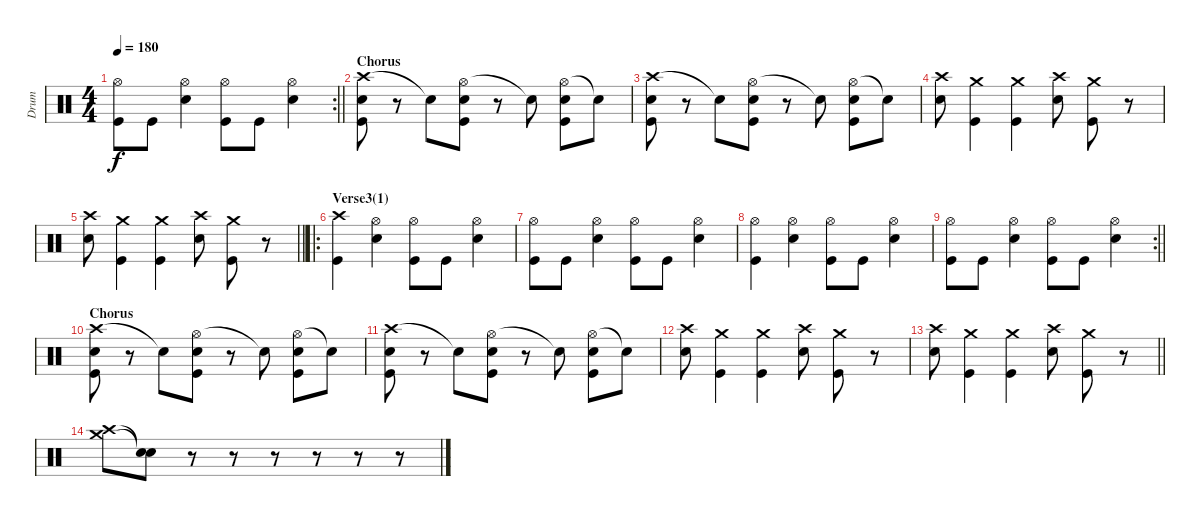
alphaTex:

\track ("Drum" "Drum") {instrument percussion}
\staff {score}
\articulation defaults
\rc 2
\ts (4 4)
\tempo 180
\clef neutral
\barLineRight lightlight
\ks c
("Hi-Hat (open)" "Kick (hit)").8{dy f} "Kick (hit)".8 ("Hi-Hat (open)" "Snare (hit) 2").4 ("Hi-Hat (open)" "Kick (hit)").8 "Kick (hit)".8 ("Hi-Hat (open)" "Snare (hit) 2").4 |
\section ("" "Chorus")
("Crash high (hit)" "Snare (hit) 2" "Kick (hit)").8 r.8 "Snare (hit)"{t}.8 ("Hi-Hat (open)" "Snare (hit) 2" "Kick (hit)").8 r.8 "Snare (hit)"{t}.8 ("Hi-Hat (open)" "Snare (hit) 2" "Kick (hit)").8 "Snare (hit)"{t}.8 |
("Crash high (hit)" "Snare (hit) 2" "Kick (hit)").8 r.8 "Snare (hit)"{t}.8 ("Hi-Hat (open)" "Snare (hit) 2" "Kick (hit)").8 r.8 "Snare (hit)"{t}.8 ("Hi-Hat (open)" "Snare (hit) 2" "Kick (hit)").8 "Snare (hit)"{t}.8 |
("Crash high (hit)" "Snare (hit) 2").8 ("Crash medium (hit)" "Kick (hit)").4 ("Crash medium (hit)" "Kick (hit)").4 ("Crash high (hit)" "Snare (hit) 2").8 ("Crash medium (hit)" "Kick (hit)").8 r.8 |
\barLineRight lightlight
("Crash high (hit)" "Snare (hit) 2").8 ("Crash medium (hit)" "Kick (hit)").4 ("Crash medium (hit)" "Kick (hit)").4 ("Crash high (hit)" "Snare (hit) 2").8 ("Crash medium (hit)" "Kick (hit)").8 r.8 |
\ro
\section ("" "Verse3(1)")
("Crash high (hit)" "Kick (hit)").4 ("Hi-Hat (open)" "Snare (hit) 2").4 ("Hi-Hat (open)" "Kick (hit)").8 "Kick (hit)".8 ("Hi-Hat (open)" "Snare (hit) 2").4 |
("Hi-Hat (open)" "Kick (hit)").8 "Kick (hit)".8 ("Hi-Hat (open)" "Snare (hit) 2").4 ("Hi-Hat (open)" "Kick (hit)").8 "Kick (hit)".8 ("Hi-Hat (open)" "Snare (hit) 2").4 |
("Hi-Hat (open)" "Kick (hit)").4 ("Hi-Hat (open)" "Snare (hit) 2").4 ("Hi-Hat (open)" "Kick (hit)").8 "Kick (hit)".8 ("Hi-Hat (open)" "Snare (hit) 2").4 |
\rc 2
\barLineRight lightlight
("Hi-Hat (open)" "Kick (hit)").8 "Kick (hit)".8 ("Hi-Hat (open)" "Snare (hit) 2").4 ("Hi-Hat (open)" "Kick (hit)").8 "Kick (hit)".8 ("Hi-Hat (open)" "Snare (hit) 2").4 |
\section ("" "Chorus")
("Crash high (hit)" "Snare (hit) 2" "Kick (hit)").8 r.8 "Snare (hit)"{t}.8 ("Hi-Hat (open)" "Snare (hit) 2" "Kick (hit)").8 r.8 "Snare (hit)"{t}.8 ("Hi-Hat (open)" "Snare (hit) 2" "Kick (hit)").8 "Snare (hit)"{t}.8 |
("Crash high (hit)" "Snare (hit) 2" "Kick (hit)").8 r.8 "Snare (hit)"{t}.8 ("Hi-Hat (open)" "Snare (hit) 2" "Kick (hit)").8 r.8 "Snare (hit)"{t}.8 ("Hi-Hat (open)" "Snare (hit) 2" "Kick (hit)").8 "Snare (hit)"{t}.8 |
("Crash high (hit)" "Snare (hit) 2").8 ("Crash medium (hit)" "Kick (hit)").4 ("Crash medium (hit)" "Kick (hit)").4 ("Crash high (hit)" "Snare (hit) 2").8 ("Crash medium (hit)" "Kick (hit)").8 r.8 |
\barLineRight lightlight
("Crash high (hit)" "Snare (hit) 2").8 ("Crash medium (hit)" "Kick (hit)").4 ("Crash medium (hit)" "Kick (hit)").4 ("Crash high (hit)" "Snare (hit) 2").8 ("Crash medium (hit)" "Kick (hit)").8 r.8 |
("Crash medium (hit)" "Crash high (hit)").8 ("Snare (hit)"{t} "Snare (hit)"{t}).8 r.8 r.8 r.8 r.8 r.8 r.8
